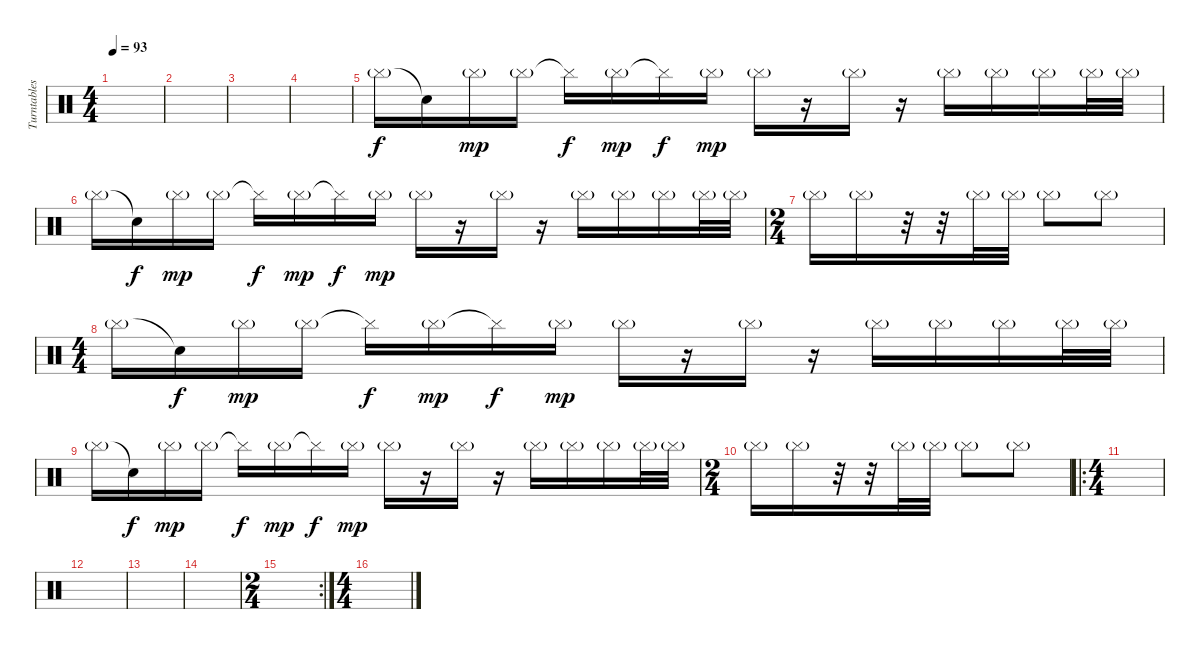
\track ("Turntables" "Turntables") {instrument percussion}
\staff {score}
\articulation defaults
\ts (4 4)
\tempo 93
\clef neutral
\ks c
|
|
|
|
"Cymbal (hit)"{g}.16 "Snare (hit)"{t}.16{dy f} "Cymbal (hit)"{g}.16{dy mp} "Cymbal (hit)"{g}.16 "Cymbal (hit)"{t}.16{dy f} "Cymbal (hit)"{g}.16{dy mp} "Cymbal (hit)"{t}.16{dy f} "Cymbal (hit)"{g}.16{dy mp} "Cymbal (hit)"{g}.16 r.16 "Cymbal (hit)"{g}.16 r.16 "Cymbal (hit)"{g}.16 "Cymbal (hit)"{g}.16 "Cymbal (hit)"{g}.16 "Cymbal (hit)"{g}.32 "Cymbal (hit)"{g}.32 |
"Cymbal (hit)"{g}.16 "Snare (hit)"{t}.16{dy f} "Cymbal (hit)"{g}.16{dy mp} "Cymbal (hit)"{g}.16 "Cymbal (hit)"{t}.16{dy f} "Cymbal (hit)"{g}.16{dy mp} "Cymbal (hit)"{t}.16{dy f} "Cymbal (hit)"{g}.16{dy mp} "Cymbal (hit)"{g}.16 r.16 "Cymbal (hit)"{g}.16 r.16 "Cymbal (hit)"{g}.16 "Cymbal (hit)"{g}.16 "Cymbal (hit)"{g}.16 "Cymbal (hit)"{g}.32 "Cymbal (hit)"{g}.32 |
\ts (2 4)
"Cymbal (hit)"{g}.16 "Cymbal (hit)"{g}.16 r.32 r.32 "Cymbal (hit)"{g}.32 "Cymbal (hit)"{g}.32 "Cymbal (hit)"{g}.8 "Cymbal (hit)"{g}.8 |
\ts (4 4)
"Cymbal (hit)"{g}.16 "Snare (hit)"{t}.16{dy f} "Cymbal (hit)"{g}.16{dy mp} "Cymbal (hit)"{g}.16 "Cymbal (hit)"{t}.16{dy f} "Cymbal (hit)"{g}.16{dy mp} "Cymbal (hit)"{t}.16{dy f} "Cymbal (hit)"{g}.16{dy mp} "Cymbal (hit)"{g}.16 r.16 "Cymbal (hit)"{g}.16 r.16 "Cymbal (hit)"{g}.16 "Cymbal (hit)"{g}.16 "Cymbal (hit)"{g}.16 "Cymbal (hit)"{g}.32 "Cymbal (hit)"{g}.32 |
"Cymbal (hit)"{g}.16 "Snare (hit)"{t}.16{dy f} "Cymbal (hit)"{g}.16{dy mp} "Cymbal (hit)"{g}.16 "Cymbal (hit)"{t}.16{dy f} "Cymbal (hit)"{g}.16{dy mp} "Cymbal (hit)"{t}.16{dy f} "Cymbal (hit)"{g}.16{dy mp} "Cymbal (hit)"{g}.16 r.16 "Cymbal (hit)"{g}.16 r.16 "Cymbal (hit)"{g}.16 "Cymbal (hit)"{g}.16 "Cymbal (hit)"{g}.16 "Cymbal (hit)"{g}.32 "Cymbal (hit)"{g}.32 |
\ts (2 4)
"Cymbal (hit)"{g}.16 "Cymbal (hit)"{g}.16 r.32 r.32 "Cymbal (hit)"{g}.32 "Cymbal (hit)"{g}.32 "Cymbal (hit)"{g}.8 "Cymbal (hit)"{g}.8 |
\ro
\ts (4 4)
|
|
|
|
\rc 2
\ts (2 4)
|
\ts (4 4)
